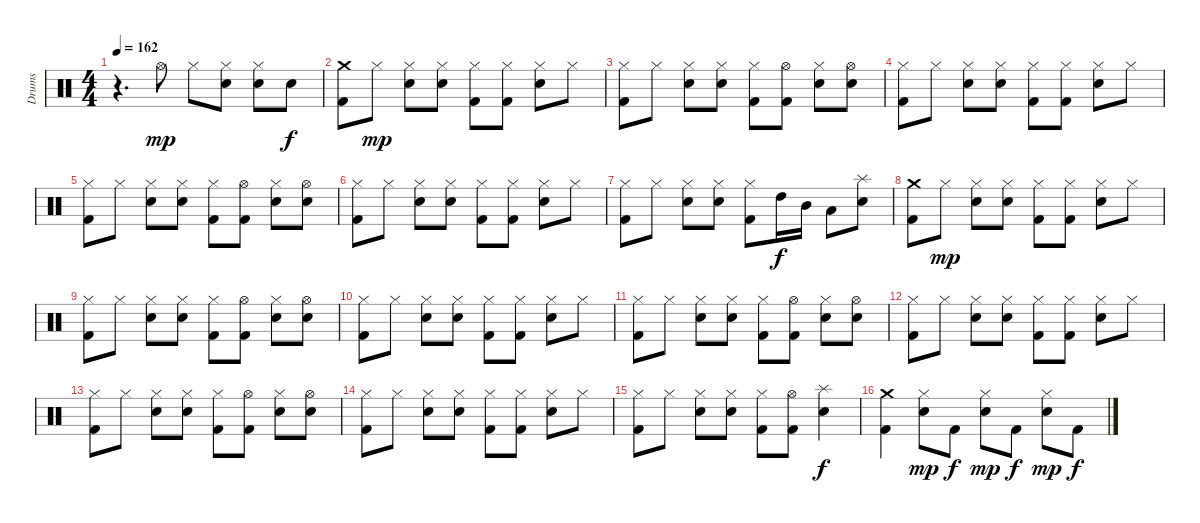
\track ("Drums" "Drums") {instrument percussion}
\staff {score}
\articulation defaults
\ts (4 4)
\tempo 162
\clef neutral
\ks c
r.4{d dy f} "Hi-Hat (open)".8{dy mp} "Hi-Hat (closed)".8 ("Hi-Hat (closed)" "Snare (hit) 2").8 ("Hi-Hat (closed)" "Snare (hit) 2").8 "Snare (hit) 2".8{dy f} |
("Crash medium (hit)" "Kick (hit) 2").8 "Hi-Hat (closed)".8{dy mp} ("Hi-Hat (closed)" "Snare (hit) 2").8 ("Hi-Hat (closed)" "Snare (hit) 2").8 ("Hi-Hat (closed)" "Kick (hit) 2").8 ("Hi-Hat (closed)" "Kick (hit) 2").8 ("Hi-Hat (closed)" "Snare (hit) 2").8 "Hi-Hat (closed)".8 |
("Hi-Hat (closed)" "Kick (hit) 2").8 "Hi-Hat (closed)".8 ("Hi-Hat (closed)" "Snare (hit) 2").8 ("Hi-Hat (closed)" "Snare (hit) 2").8 ("Hi-Hat (closed)" "Kick (hit) 2").8 ("Hi-Hat (open)" "Kick (hit) 2").8 ("Hi-Hat (closed)" "Snare (hit) 2").8 ("Hi-Hat (open)" "Snare (hit) 2").8 |
("Hi-Hat (closed)" "Kick (hit) 2").8 "Hi-Hat (closed)".8 ("Hi-Hat (closed)" "Snare (hit) 2").8 ("Hi-Hat (closed)" "Snare (hit) 2").8 ("Hi-Hat (closed)" "Kick (hit) 2").8 ("Hi-Hat (closed)" "Kick (hit) 2").8 ("Hi-Hat (closed)" "Snare (hit) 2").8 "Hi-Hat (closed)".8 |
("Hi-Hat (closed)" "Kick (hit) 2").8 "Hi-Hat (closed)".8 ("Hi-Hat (closed)" "Snare (hit) 2").8 ("Hi-Hat (closed)" "Snare (hit) 2").8 ("Hi-Hat (closed)" "Kick (hit) 2").8 ("Hi-Hat (open)" "Kick (hit) 2").8 ("Hi-Hat (closed)" "Snare (hit) 2").8 ("Hi-Hat (open)" "Snare (hit) 2").8 |
("Hi-Hat (closed)" "Kick (hit) 2").8 "Hi-Hat (closed)".8 ("Hi-Hat (closed)" "Snare (hit) 2").8 ("Hi-Hat (closed)" "Snare (hit) 2").8 ("Hi-Hat (closed)" "Kick (hit) 2").8 ("Hi-Hat (closed)" "Kick (hit) 2").8 ("Hi-Hat (closed)" "Snare (hit) 2").8 "Hi-Hat (closed)".8 |
("Hi-Hat (closed)" "Kick (hit) 2").8 "Hi-Hat (closed)".8 ("Hi-Hat (closed)" "Snare (hit) 2").8 ("Hi-Hat (closed)" "Snare (hit) 2").8 ("Hi-Hat (closed)" "Kick (hit) 2").8 "High Tom (hit)".16{dy f} "Mid Tom (hit)".16 "Low Tom (hit)".8 ("Splash (hit)" "Snare (hit) 2").8 |
("Crash medium (hit)" "Kick (hit) 2").8 "Hi-Hat (closed)".8{dy mp} ("Hi-Hat (closed)" "Snare (hit) 2").8 ("Hi-Hat (closed)" "Snare (hit) 2").8 ("Hi-Hat (closed)" "Kick (hit) 2").8 ("Hi-Hat (closed)" "Kick (hit) 2").8 ("Hi-Hat (closed)" "Snare (hit) 2").8 "Hi-Hat (closed)".8 |
("Hi-Hat (closed)" "Kick (hit) 2").8 "Hi-Hat (closed)".8 ("Hi-Hat (closed)" "Snare (hit) 2").8 ("Hi-Hat (closed)" "Snare (hit) 2").8 ("Hi-Hat (closed)" "Kick (hit) 2").8 ("Hi-Hat (open)" "Kick (hit) 2").8 ("Hi-Hat (closed)" "Snare (hit) 2").8 ("Hi-Hat (open)" "Snare (hit) 2").8 |
("Hi-Hat (closed)" "Kick (hit) 2").8 "Hi-Hat (closed)".8 ("Hi-Hat (closed)" "Snare (hit) 2").8 ("Hi-Hat (closed)" "Snare (hit) 2").8 ("Hi-Hat (closed)" "Kick (hit) 2").8 ("Hi-Hat (closed)" "Kick (hit) 2").8 ("Hi-Hat (closed)" "Snare (hit) 2").8 "Hi-Hat (closed)".8 |
("Hi-Hat (closed)" "Kick (hit) 2").8 "Hi-Hat (closed)".8 ("Hi-Hat (closed)" "Snare (hit) 2").8 ("Hi-Hat (closed)" "Snare (hit) 2").8 ("Hi-Hat (closed)" "Kick (hit) 2").8 ("Hi-Hat (open)" "Kick (hit) 2").8 ("Hi-Hat (closed)" "Snare (hit) 2").8 ("Hi-Hat (open)" "Snare (hit) 2").8 |
("Hi-Hat (closed)" "Kick (hit) 2").8 "Hi-Hat (closed)".8 ("Hi-Hat (closed)" "Snare (hit) 2").8 ("Hi-Hat (closed)" "Snare (hit) 2").8 ("Hi-Hat (closed)" "Kick (hit) 2").8 ("Hi-Hat (closed)" "Kick (hit) 2").8 ("Hi-Hat (closed)" "Snare (hit) 2").8 "Hi-Hat (closed)".8 |
("Hi-Hat (closed)" "Kick (hit) 2").8 "Hi-Hat (closed)".8 ("Hi-Hat (closed)" "Snare (hit) 2").8 ("Hi-Hat (closed)" "Snare (hit) 2").8 ("Hi-Hat (closed)" "Kick (hit) 2").8 ("Hi-Hat (open)" "Kick (hit) 2").8 ("Hi-Hat (closed)" "Snare (hit) 2").8 ("Hi-Hat (open)" "Snare (hit) 2").8 |
("Hi-Hat (closed)" "Kick (hit) 2").8 "Hi-Hat (closed)".8 ("Hi-Hat (closed)" "Snare (hit) 2").8 ("Hi-Hat (closed)" "Snare (hit) 2").8 ("Hi-Hat (closed)" "Kick (hit) 2").8 ("Hi-Hat (closed)" "Kick (hit) 2").8 ("Hi-Hat (closed)" "Snare (hit) 2").8 "Hi-Hat (closed)".8 |
("Hi-Hat (closed)" "Kick (hit) 2").8 "Hi-Hat (closed)".8 ("Hi-Hat (closed)" "Snare (hit) 2").8 ("Hi-Hat (closed)" "Snare (hit) 2").8 ("Hi-Hat (closed)" "Kick (hit) 2").8 ("Hi-Hat (open)" "Kick (hit) 2").8 ("Splash (hit)" "Snare (hit) 2").4{dy f} |
("Crash medium (hit)" "Kick (hit) 2").4 ("Hi-Hat (closed)" "Snare (hit) 2").8{dy mp} "Kick (hit) 2".8{dy f} ("Hi-Hat (closed)" "Snare (hit) 2").8{dy mp} "Kick (hit) 2".8{dy f} ("Hi-Hat (closed)" "Snare (hit) 2").8{dy mp} "Kick (hit) 2".8{dy f}
